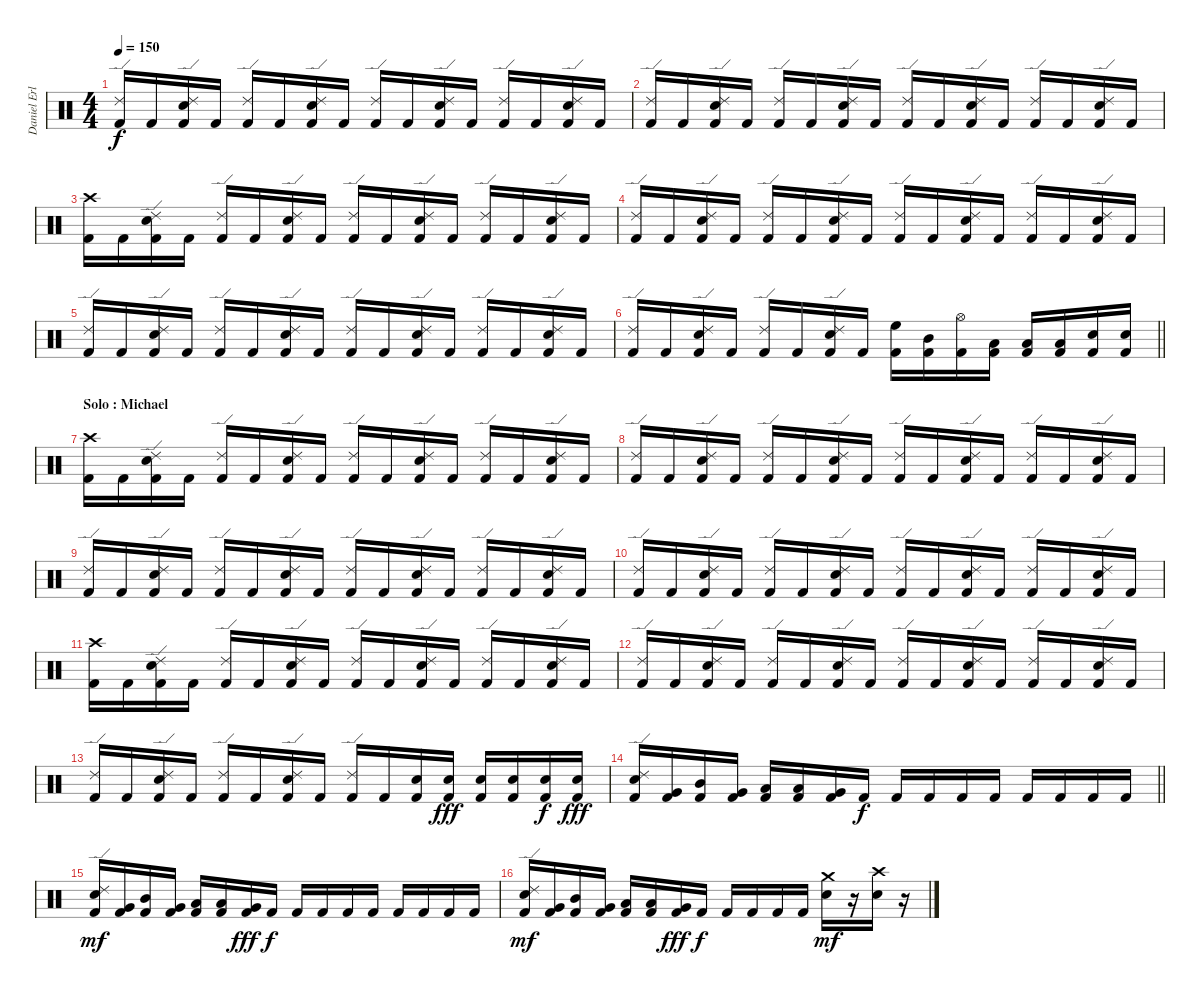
\track ("Daniel Erlandsson" "Daniel Erl") {instrument percussion}
\staff {score}
\articulation defaults
\ts (4 4)
\tempo 150
\clef neutral
\ks c
("Ride (edge) 2" "Kick (hit) 2").16{dy f} "Kick (hit) 2".16 ("Ride (edge) 2" "Electric Snare (hit)" "Kick (hit) 2").16 "Kick (hit) 2".16 ("Ride (edge) 2" "Kick (hit) 2").16 "Kick (hit) 2".16 ("Ride (edge) 2" "Electric Snare (hit)" "Kick (hit) 2").16 "Kick (hit) 2".16 ("Ride (edge) 2" "Kick (hit) 2").16 "Kick (hit) 2".16 ("Ride (edge) 2" "Electric Snare (hit)" "Kick (hit) 2").16 "Kick (hit) 2".16 ("Ride (edge) 2" "Kick (hit) 2").16 "Kick (hit) 2".16 ("Ride (edge) 2" "Electric Snare (hit)" "Kick (hit) 2").16 "Kick (hit) 2".16 |
("Ride (edge) 2" "Kick (hit) 2").16 "Kick (hit) 2".16 ("Ride (edge) 2" "Electric Snare (hit)" "Kick (hit) 2").16 "Kick (hit) 2".16 ("Ride (edge) 2" "Kick (hit) 2").16 "Kick (hit) 2".16 ("Ride (edge) 2" "Electric Snare (hit)" "Kick (hit) 2").16 "Kick (hit) 2".16 ("Ride (edge) 2" "Kick (hit) 2").16 "Kick (hit) 2".16 ("Ride (edge) 2" "Electric Snare (hit)" "Kick (hit) 2").16 "Kick (hit) 2".16 ("Ride (edge) 2" "Kick (hit) 2").16 "Kick (hit) 2".16 ("Ride (edge) 2" "Electric Snare (hit)" "Kick (hit) 2").16 "Kick (hit) 2".16 |
("Crash high (hit)" "Kick (hit) 2").16 "Kick (hit) 2".16 ("Ride (edge) 2" "Electric Snare (hit)" "Kick (hit) 2").16 "Kick (hit) 2".16 ("Ride (edge) 2" "Kick (hit) 2").16 "Kick (hit) 2".16 ("Ride (edge) 2" "Electric Snare (hit)" "Kick (hit) 2").16 "Kick (hit) 2".16 ("Ride (edge) 2" "Kick (hit) 2").16 "Kick (hit) 2".16 ("Ride (edge) 2" "Electric Snare (hit)" "Kick (hit) 2").16 "Kick (hit) 2".16 ("Ride (edge) 2" "Kick (hit) 2").16 "Kick (hit) 2".16 ("Ride (edge) 2" "Electric Snare (hit)" "Kick (hit) 2").16 "Kick (hit) 2".16 |
("Ride (edge) 2" "Kick (hit) 2").16 "Kick (hit) 2".16 ("Ride (edge) 2" "Electric Snare (hit)" "Kick (hit) 2").16 "Kick (hit) 2".16 ("Ride (edge) 2" "Kick (hit) 2").16 "Kick (hit) 2".16 ("Ride (edge) 2" "Electric Snare (hit)" "Kick (hit) 2").16 "Kick (hit) 2".16 ("Ride (edge) 2" "Kick (hit) 2").16 "Kick (hit) 2".16 ("Ride (edge) 2" "Electric Snare (hit)" "Kick (hit) 2").16 "Kick (hit) 2".16 ("Ride (edge) 2" "Kick (hit) 2").16 "Kick (hit) 2".16 ("Ride (edge) 2" "Electric Snare (hit)" "Kick (hit) 2").16 "Kick (hit) 2".16 |
("Ride (edge) 2" "Kick (hit) 2").16 "Kick (hit) 2".16 ("Ride (edge) 2" "Electric Snare (hit)" "Kick (hit) 2").16 "Kick (hit) 2".16 ("Ride (edge) 2" "Kick (hit) 2").16 "Kick (hit) 2".16 ("Ride (edge) 2" "Electric Snare (hit)" "Kick (hit) 2").16 "Kick (hit) 2".16 ("Ride (edge) 2" "Kick (hit) 2").16 "Kick (hit) 2".16 ("Ride (edge) 2" "Electric Snare (hit)" "Kick (hit) 2").16 "Kick (hit) 2".16 ("Ride (edge) 2" "Kick (hit) 2").16 "Kick (hit) 2".16 ("Ride (edge) 2" "Electric Snare (hit)" "Kick (hit) 2").16 "Kick (hit) 2".16 |
\barLineRight lightlight
("Ride (edge) 2" "Kick (hit) 2").16 "Kick (hit) 2".16 ("Ride (edge) 2" "Electric Snare (hit)" "Kick (hit) 2").16 "Kick (hit) 2".16 ("Ride (edge) 2" "Kick (hit) 2").16 "Kick (hit) 2".16 ("Ride (edge) 2" "Electric Snare (hit)" "Kick (hit) 2").16 "Kick (hit) 2".16 ("High Floor Tom (hit)" "Kick (hit) 2").16 ("Mid Tom (hit)" "Kick (hit) 2").16 ("Hi-Hat (open)" "Kick (hit) 2").16 ("Low Floor Tom (hit)" "Kick (hit) 2").16 ("Low Tom (hit)" "Kick (hit) 2").16 ("Low Floor Tom (hit)" "Kick (hit) 2").16 ("Electric Snare (hit)" "Kick (hit) 2").16 ("Electric Snare (hit)" "Kick (hit) 2").16 |
\section ("" "Solo : Michael")
("Crash high (hit)" "Kick (hit) 2").16 "Kick (hit) 2".16 ("Ride (edge) 2" "Electric Snare (hit)" "Kick (hit) 2").16 "Kick (hit) 2".16 ("Ride (edge) 2" "Kick (hit) 2").16 "Kick (hit) 2".16 ("Ride (edge) 2" "Electric Snare (hit)" "Kick (hit) 2").16 "Kick (hit) 2".16 ("Ride (edge) 2" "Kick (hit) 2").16 "Kick (hit) 2".16 ("Ride (edge) 2" "Electric Snare (hit)" "Kick (hit) 2").16 "Kick (hit) 2".16 ("Ride (edge) 2" "Kick (hit) 2").16 "Kick (hit) 2".16 ("Ride (edge) 2" "Electric Snare (hit)" "Kick (hit) 2").16 "Kick (hit) 2".16 |
("Ride (edge) 2" "Kick (hit) 2").16 "Kick (hit) 2".16 ("Ride (edge) 2" "Electric Snare (hit)" "Kick (hit) 2").16 "Kick (hit) 2".16 ("Ride (edge) 2" "Kick (hit) 2").16 "Kick (hit) 2".16 ("Ride (edge) 2" "Electric Snare (hit)" "Kick (hit) 2").16 "Kick (hit) 2".16 ("Ride (edge) 2" "Kick (hit) 2").16 "Kick (hit) 2".16 ("Ride (edge) 2" "Electric Snare (hit)" "Kick (hit) 2").16 "Kick (hit) 2".16 ("Ride (edge) 2" "Kick (hit) 2").16 "Kick (hit) 2".16 ("Ride (edge) 2" "Electric Snare (hit)" "Kick (hit) 2").16 "Kick (hit) 2".16 |
("Ride (edge) 2" "Kick (hit) 2").16 "Kick (hit) 2".16 ("Ride (edge) 2" "Electric Snare (hit)" "Kick (hit) 2").16 "Kick (hit) 2".16 ("Ride (edge) 2" "Kick (hit) 2").16 "Kick (hit) 2".16 ("Ride (edge) 2" "Electric Snare (hit)" "Kick (hit) 2").16 "Kick (hit) 2".16 ("Ride (edge) 2" "Kick (hit) 2").16 "Kick (hit) 2".16 ("Ride (edge) 2" "Electric Snare (hit)" "Kick (hit) 2").16 "Kick (hit) 2".16 ("Ride (edge) 2" "Kick (hit) 2").16 "Kick (hit) 2".16 ("Ride (edge) 2" "Electric Snare (hit)" "Kick (hit) 2").16 "Kick (hit) 2".16 |
("Ride (edge) 2" "Kick (hit) 2").16 "Kick (hit) 2".16 ("Ride (edge) 2" "Electric Snare (hit)" "Kick (hit) 2").16 "Kick (hit) 2".16 ("Ride (edge) 2" "Kick (hit) 2").16 "Kick (hit) 2".16 ("Ride (edge) 2" "Electric Snare (hit)" "Kick (hit) 2").16 "Kick (hit) 2".16 ("Ride (edge) 2" "Kick (hit) 2").16 "Kick (hit) 2".16 ("Ride (edge) 2" "Electric Snare (hit)" "Kick (hit) 2").16 "Kick (hit) 2".16 ("Ride (edge) 2" "Kick (hit) 2").16 "Kick (hit) 2".16 ("Ride (edge) 2" "Electric Snare (hit)" "Kick (hit) 2").16 "Kick (hit) 2".16 |
("Crash high (hit)" "Kick (hit) 2").16 "Kick (hit) 2".16 ("Ride (edge) 2" "Electric Snare (hit)" "Kick (hit) 2").16 "Kick (hit) 2".16 ("Ride (edge) 2" "Kick (hit) 2").16 "Kick (hit) 2".16 ("Ride (edge) 2" "Electric Snare (hit)" "Kick (hit) 2").16 "Kick (hit) 2".16 ("Ride (edge) 2" "Kick (hit) 2").16 "Kick (hit) 2".16 ("Ride (edge) 2" "Electric Snare (hit)" "Kick (hit) 2").16 "Kick (hit) 2".16 ("Ride (edge) 2" "Kick (hit) 2").16 "Kick (hit) 2".16 ("Ride (edge) 2" "Electric Snare (hit)" "Kick (hit) 2").16 "Kick (hit) 2".16 |
("Ride (edge) 2" "Kick (hit) 2").16 "Kick (hit) 2".16 ("Ride (edge) 2" "Electric Snare (hit)" "Kick (hit) 2").16 "Kick (hit) 2".16 ("Ride (edge) 2" "Kick (hit) 2").16 "Kick (hit) 2".16 ("Ride (edge) 2" "Electric Snare (hit)" "Kick (hit) 2").16 "Kick (hit) 2".16 ("Ride (edge) 2" "Kick (hit) 2").16 "Kick (hit) 2".16 ("Ride (edge) 2" "Electric Snare (hit)" "Kick (hit) 2").16 "Kick (hit) 2".16 ("Ride (edge) 2" "Kick (hit) 2").16 "Kick (hit) 2".16 ("Ride (edge) 2" "Electric Snare (hit)" "Kick (hit) 2").16 "Kick (hit) 2".16 |
("Ride (edge) 2" "Kick (hit) 2").16 "Kick (hit) 2".16 ("Ride (edge) 2" "Electric Snare (hit)" "Kick (hit) 2").16 "Kick (hit) 2".16 ("Ride (edge) 2" "Kick (hit) 2").16 "Kick (hit) 2".16 ("Ride (edge) 2" "Electric Snare (hit)" "Kick (hit) 2").16 "Kick (hit) 2".16 ("Ride (edge) 2" "Kick (hit) 2").16 "Kick (hit) 2".16 ("Electric Snare (hit)" "Kick (hit) 2").16 ("Electric Snare (hit)" "Kick (hit) 2").16{dy fff} ("Electric Snare (hit)" "Kick (hit) 2").16 ("Electric Snare (hit)" "Kick (hit) 2").16 ("Electric Snare (hit)" "Kick (hit) 2").16{dy f} ("Electric Snare (hit)" "Kick (hit) 2").16{dy fff} |
\barLineRight lightlight
("Ride (edge) 2" "Electric Snare (hit)" "Kick (hit) 2").16 ("Very Low Tom (hit)" "Kick (hit) 2").16 ("Mid Tom (hit)" "Kick (hit) 2").16 ("Very Low Tom (hit)" "Kick (hit) 2").16 ("Low Floor Tom (hit)" "Kick (hit) 2").16 ("Low Tom (hit)" "Kick (hit) 2").16 ("Very Low Tom (hit)" "Kick (hit) 2").16 "Kick (hit) 2".16{dy f} "Kick (hit) 2".16 "Kick (hit) 2".16 "Kick (hit) 2".16 "Kick (hit) 2".16 "Kick (hit) 2".16 "Kick (hit) 2".16 "Kick (hit) 2".16 "Kick (hit) 2".16 |
("Ride (edge) 2" "Electric Snare (hit)" "Kick (hit) 2").16{dy mf} ("Very Low Tom (hit)" "Kick (hit) 2").16 ("Mid Tom (hit)" "Kick (hit) 2").16 ("Very Low Tom (hit)" "Kick (hit) 2").16 ("Low Floor Tom (hit)" "Kick (hit) 2").16 ("Low Tom (hit)" "Kick (hit) 2").16 ("Very Low Tom (hit)" "Kick (hit) 2").16{dy fff} "Kick (hit) 2".16{dy f} "Kick (hit) 2".16 "Kick (hit) 2".16 "Kick (hit) 2".16 "Kick (hit) 2".16 "Kick (hit) 2".16 "Kick (hit) 2".16 "Kick (hit) 2".16 "Kick (hit) 2".16 |
("Ride (edge) 2" "Electric Snare (hit)" "Kick (hit) 2").16{dy mf} ("Very Low Tom (hit)" "Kick (hit) 2").16 ("Mid Tom (hit)" "Kick (hit) 2").16 ("Very Low Tom (hit)" "Kick (hit) 2").16 ("Low Floor Tom (hit)" "Kick (hit) 2").16 ("Low Tom (hit)" "Kick (hit) 2").16 ("Very Low Tom (hit)" "Kick (hit) 2").16{dy fff} "Kick (hit) 2".16{dy f} "Kick (hit) 2".16 "Kick (hit) 2".16 "Kick (hit) 2".16 "Kick (hit) 2".16 ("Crash medium (hit)" "Electric Snare (hit)").16{dy mf} r.16 ("Crash high (hit)" "Electric Snare (hit)").16 r.16
